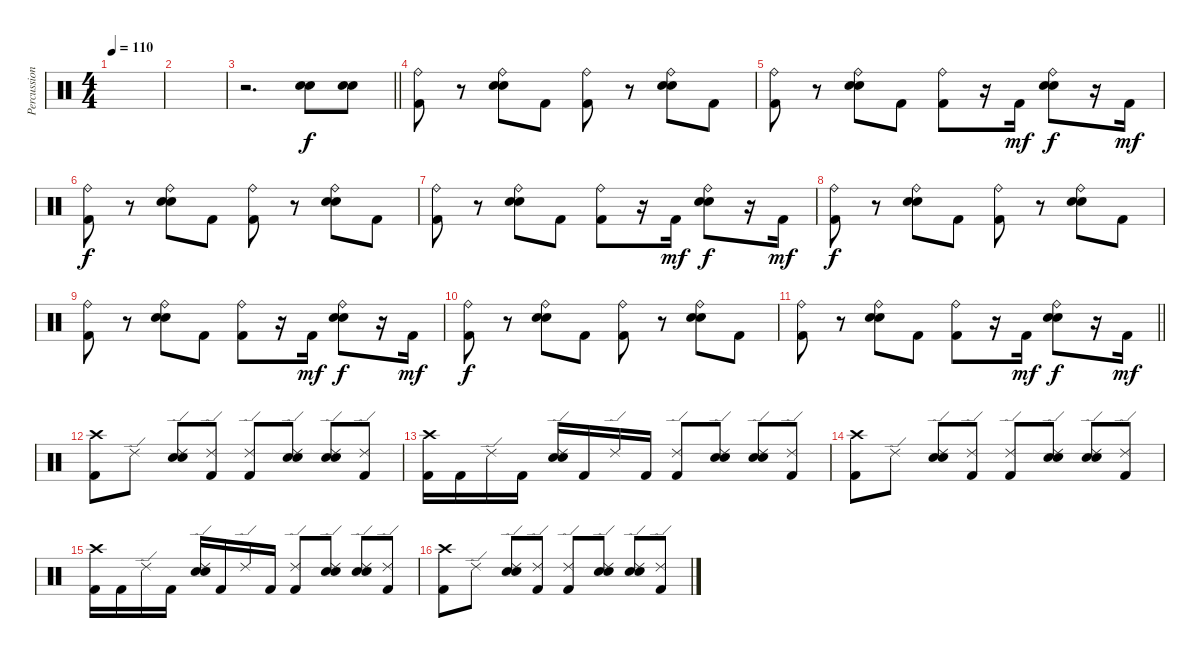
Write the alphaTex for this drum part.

\track ("Percussions" "Percussion") {instrument percussion}
\staff {score}
\articulation defaults
\ts (4 4)
\tempo 110
\clef neutral
\ks c
|
|
\barLineRight lightlight
r.2{d} ("Hand Clap (hit)" "Electric Snare (hit)").8 ("Hand Clap (hit)" "Electric Snare (hit)").8 |
\section ("" "")
("Ride (bell)" "Kick (hit) 2").8 r.8 ("Ride (bell)" "Hand Clap (hit)" "Electric Snare (hit)").8 "Kick (hit) 2".8 ("Ride (bell)" "Kick (hit) 2").8 r.8 ("Ride (bell)" "Hand Clap (hit)" "Electric Snare (hit)").8 "Kick (hit) 2".8 |
("Ride (bell)" "Kick (hit) 2").8 r.8 ("Ride (bell)" "Hand Clap (hit)" "Electric Snare (hit)").8 "Kick (hit) 2".8 ("Ride (bell)" "Kick (hit) 2").8 r.16 "Kick (hit) 2".16{dy mf} ("Ride (bell)" "Hand Clap (hit)" "Electric Snare (hit)").8{dy f} r.16 "Kick (hit) 2".16{dy mf} |
("Ride (bell)" "Kick (hit) 2").8{dy f} r.8 ("Ride (bell)" "Hand Clap (hit)" "Electric Snare (hit)").8 "Kick (hit) 2".8 ("Ride (bell)" "Kick (hit) 2").8 r.8 ("Ride (bell)" "Hand Clap (hit)" "Electric Snare (hit)").8 "Kick (hit) 2".8 |
("Ride (bell)" "Kick (hit) 2").8 r.8 ("Ride (bell)" "Hand Clap (hit)" "Electric Snare (hit)").8 "Kick (hit) 2".8 ("Ride (bell)" "Kick (hit) 2").8 r.16 "Kick (hit) 2".16{dy mf} ("Ride (bell)" "Hand Clap (hit)" "Electric Snare (hit)").8{dy f} r.16 "Kick (hit) 2".16{dy mf} |
("Ride (bell)" "Kick (hit) 2").8{dy f} r.8 ("Ride (bell)" "Hand Clap (hit)" "Electric Snare (hit)").8 "Kick (hit) 2".8 ("Ride (bell)" "Kick (hit) 2").8 r.8 ("Ride (bell)" "Hand Clap (hit)" "Electric Snare (hit)").8 "Kick (hit) 2".8 |
("Ride (bell)" "Kick (hit) 2").8 r.8 ("Ride (bell)" "Hand Clap (hit)" "Electric Snare (hit)").8 "Kick (hit) 2".8 ("Ride (bell)" "Kick (hit) 2").8 r.16 "Kick (hit) 2".16{dy mf} ("Ride (bell)" "Hand Clap (hit)" "Electric Snare (hit)").8{dy f} r.16 "Kick (hit) 2".16{dy mf} |
("Ride (bell)" "Kick (hit) 2").8{dy f} r.8 ("Ride (bell)" "Hand Clap (hit)" "Electric Snare (hit)").8 "Kick (hit) 2".8 ("Ride (bell)" "Kick (hit) 2").8 r.8 ("Ride (bell)" "Hand Clap (hit)" "Electric Snare (hit)").8 "Kick (hit) 2".8 |
\barLineRight lightlight
("Ride (bell)" "Kick (hit) 2").8 r.8 ("Ride (bell)" "Hand Clap (hit)" "Electric Snare (hit)").8 "Kick (hit) 2".8 ("Ride (bell)" "Kick (hit) 2").8 r.16 "Kick (hit) 2".16{dy mf} ("Ride (bell)" "Hand Clap (hit)" "Electric Snare (hit)").8{dy f} r.16 "Kick (hit) 2".16{dy mf} |
\section ("" "")
("Crash high (hit)" "Kick (hit) 2").8 "Ride (edge) 2".8 ("Ride (edge) 2" "Hand Clap (hit)" "Electric Snare (hit)").8 ("Ride (edge) 2" "Kick (hit) 2").8 ("Ride (edge) 2" "Kick (hit) 2").8 ("Ride (edge) 2" "Hand Clap (hit)" "Electric Snare (hit)").8 ("Ride (edge) 2" "Hand Clap (hit)" "Electric Snare (hit)").8 ("Ride (edge) 2" "Kick (hit) 2").8 |
("Crash high (hit)" "Kick (hit) 2").16 "Kick (hit) 2".16 "Ride (edge) 2".16 "Kick (hit) 2".16 ("Ride (edge) 2" "Hand Clap (hit)" "Electric Snare (hit)").16 "Kick (hit) 2".16 "Ride (edge) 2".16 "Kick (hit) 2".16 ("Ride (edge) 2" "Kick (hit) 2").8 ("Ride (edge) 2" "Hand Clap (hit)" "Electric Snare (hit)").8 ("Ride (edge) 2" "Hand Clap (hit)" "Electric Snare (hit)").8 ("Ride (edge) 2" "Kick (hit) 2").8 |
("Crash high (hit)" "Kick (hit) 2").8 "Ride (edge) 2".8 ("Ride (edge) 2" "Hand Clap (hit)" "Electric Snare (hit)").8 ("Ride (edge) 2" "Kick (hit) 2").8 ("Ride (edge) 2" "Kick (hit) 2").8 ("Ride (edge) 2" "Hand Clap (hit)" "Electric Snare (hit)").8 ("Ride (edge) 2" "Hand Clap (hit)" "Electric Snare (hit)").8 ("Ride (edge) 2" "Kick (hit) 2").8 |
("Crash high (hit)" "Kick (hit) 2").16 "Kick (hit) 2".16 "Ride (edge) 2".16 "Kick (hit) 2".16 ("Ride (edge) 2" "Hand Clap (hit)" "Electric Snare (hit)").16 "Kick (hit) 2".16 "Ride (edge) 2".16 "Kick (hit) 2".16 ("Ride (edge) 2" "Kick (hit) 2").8 ("Ride (edge) 2" "Hand Clap (hit)" "Electric Snare (hit)").8 ("Ride (edge) 2" "Hand Clap (hit)" "Electric Snare (hit)").8 ("Ride (edge) 2" "Kick (hit) 2").8 |
("Crash high (hit)" "Kick (hit) 2").8 "Ride (edge) 2".8 ("Ride (edge) 2" "Hand Clap (hit)" "Electric Snare (hit)").8 ("Ride (edge) 2" "Kick (hit) 2").8 ("Ride (edge) 2" "Kick (hit) 2").8 ("Ride (edge) 2" "Hand Clap (hit)" "Electric Snare (hit)").8 ("Ride (edge) 2" "Hand Clap (hit)" "Electric Snare (hit)").8 ("Ride (edge) 2" "Kick (hit) 2").8
